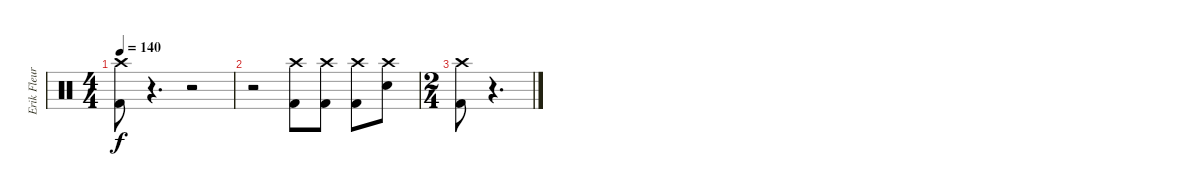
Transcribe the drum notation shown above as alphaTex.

\track ("Erik Fleuren" "Erik Fleur") {instrument percussion}
\staff {score}
\articulation defaults
\ts (4 4)
\tempo 140
\clef neutral
\ks c
("Crash high (hit)" "Kick (hit) 2").8{dy f} r.4{d volume 0} r.2 |
r.2 ("Crash high (hit)" "Kick (hit) 2").8{volume 13} ("Crash high (hit)" "Kick (hit) 2").8 ("Crash high (hit)" "Kick (hit) 2").8 ("Crash high (hit)" "Electric Snare (hit)").8 |
\ts (2 4)
("Crash high (hit)" "Kick (hit) 2").8 r.4{d}
